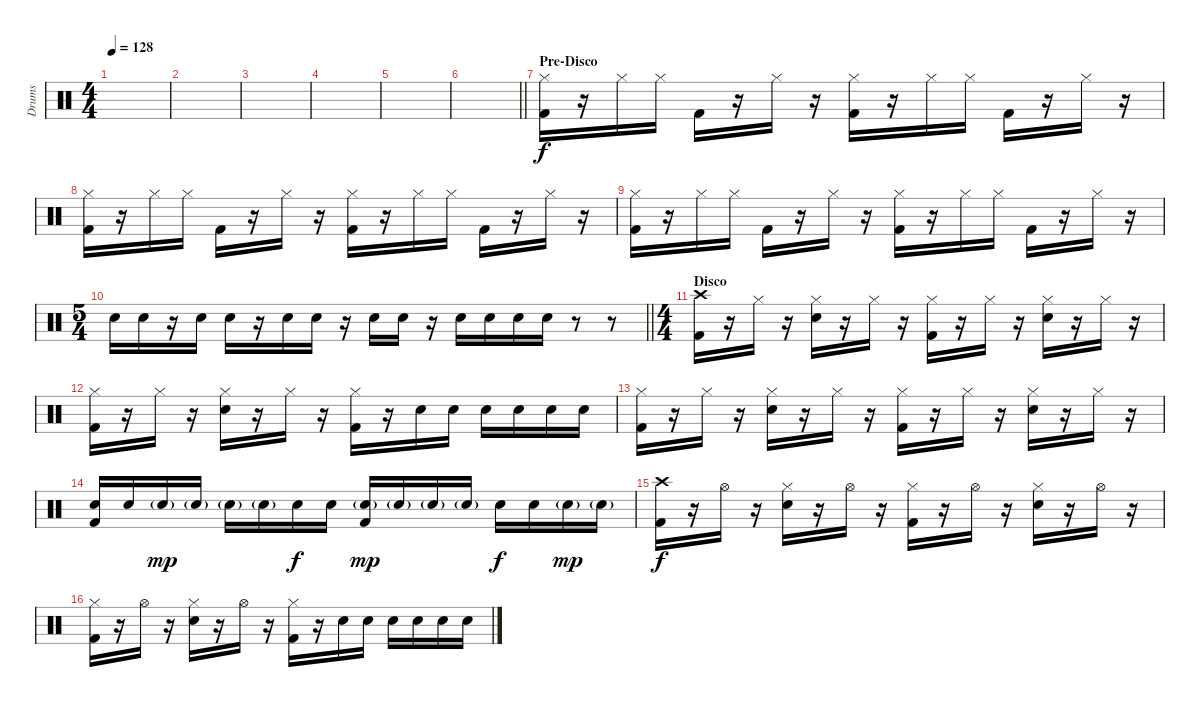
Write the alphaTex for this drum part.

\track ("Drums" "Drums") {instrument percussion}
\staff {score}
\articulation defaults
\ts (4 4)
\tempo 128
\clef neutral
\ks c
|
|
|
|
|
\barLineRight lightlight
|
\section ("" "Pre-Disco")
("Hi-Hat (closed)" "Kick (hit) 2").16 r.16 "Hi-Hat (closed)".16 "Hi-Hat (closed)".16 "Kick (hit) 2".16 r.16 "Hi-Hat (closed)".16 r.16 ("Hi-Hat (closed)" "Kick (hit) 2").16 r.16 "Hi-Hat (closed)".16 "Hi-Hat (closed)".16 "Kick (hit) 2".16 r.16 "Hi-Hat (closed)".16 r.16 |
("Hi-Hat (closed)" "Kick (hit) 2").16 r.16 "Hi-Hat (closed)".16 "Hi-Hat (closed)".16 "Kick (hit) 2".16 r.16 "Hi-Hat (closed)".16 r.16 ("Hi-Hat (closed)" "Kick (hit) 2").16 r.16 "Hi-Hat (closed)".16 "Hi-Hat (closed)".16 "Kick (hit) 2".16 r.16 "Hi-Hat (closed)".16 r.16 |
("Hi-Hat (closed)" "Kick (hit) 2").16 r.16 "Hi-Hat (closed)".16 "Hi-Hat (closed)".16 "Kick (hit) 2".16 r.16 "Hi-Hat (closed)".16 r.16 ("Hi-Hat (closed)" "Kick (hit) 2").16 r.16 "Hi-Hat (closed)".16 "Hi-Hat (closed)".16 "Kick (hit) 2".16 r.16 "Hi-Hat (closed)".16 r.16 |
\ts (5 4)
\barLineRight lightlight "Electric Snare (hit)".16 "Electric Snare (hit)".16
r.16 "Electric Snare (hit)".16 "Electric Snare (hit)".16 r.16 "Electric Snare (hit)".16 "Electric Snare (hit)".16 r.16 "Electric Snare (hit)".16 "Electric Snare (hit)".16 r.16 "Electric Snare (hit)".16 "Electric Snare (hit)".16 "Electric Snare (hit)".16 "Electric Snare (hit)".16 r.8 r.8 |
\ts (4 4)
\section ("" "Disco")
("Crash high (hit)" "Kick (hit) 2").16 r.16 "Hi-Hat (closed)".16 r.16 ("Hi-Hat (closed)" "Electric Snare (hit)").16 r.16 "Hi-Hat (closed)".16 r.16 ("Hi-Hat (closed)" "Kick (hit) 2").16 r.16 "Hi-Hat (closed)".16 r.16 ("Hi-Hat (closed)" "Electric Snare (hit)").16 r.16 "Hi-Hat (closed)".16 r.16 |
("Hi-Hat (closed)" "Kick (hit) 2").16 r.16 "Hi-Hat (closed)".16 r.16 ("Hi-Hat (closed)" "Electric Snare (hit)").16 r.16 "Hi-Hat (closed)".16 r.16 ("Hi-Hat (closed)" "Kick (hit) 2").16 r.16 "Electric Snare (hit)".16 "Electric Snare (hit)".16 "Electric Snare (hit)".16 "Electric Snare (hit)".16 "Electric Snare (hit)".16 "Electric Snare (hit)".16 |
("Hi-Hat (closed)" "Kick (hit) 2").16 r.16 "Hi-Hat (closed)".16 r.16 ("Hi-Hat (closed)" "Electric Snare (hit)").16 r.16 "Hi-Hat (closed)".16 r.16 ("Hi-Hat (closed)" "Kick (hit) 2").16 r.16 "Hi-Hat (closed)".16 r.16 ("Hi-Hat (closed)" "Electric Snare (hit)").16 r.16 "Hi-Hat (closed)".16 r.16 |
("Electric Snare (hit)" "Kick (hit) 2").16 "Electric Snare (hit)".16 "Electric Snare (hit)"{g}.16{dy mp} "Electric Snare (hit)"{g}.16 "Electric Snare (hit)"{g}.16 "Electric Snare (hit)"{g}.16 "Electric Snare (hit)".16{dy f} "Electric Snare (hit)".16 ("Electric Snare (hit)"{g} "Kick (hit) 2").16{dy mp} "Electric Snare (hit)"{g}.16 "Electric Snare (hit)"{g}.16 "Electric Snare (hit)"{g}.16 "Electric Snare (hit)".16{dy f} "Electric Snare (hit)".16 "Electric Snare (hit)"{g}.16{dy mp} "Electric Snare (hit)"{g}.16 |
("Crash high (hit)" "Kick (hit) 2").16{dy f} r.16 "Hi-Hat (open)".16 r.16 ("Hi-Hat (closed)" "Electric Snare (hit)").16 r.16 "Hi-Hat (open)".16 r.16 ("Hi-Hat (closed)" "Kick (hit) 2").16 r.16 "Hi-Hat (open)".16 r.16 ("Hi-Hat (closed)" "Electric Snare (hit)").16 r.16 "Hi-Hat (open)".16 r.16 |
("Hi-Hat (closed)" "Kick (hit) 2").16 r.16 "Hi-Hat (open)".16 r.16 ("Hi-Hat (closed)" "Electric Snare (hit)").16 r.16 "Hi-Hat (open)".16 r.16 ("Hi-Hat (closed)" "Kick (hit) 2").16 r.16 "Electric Snare (hit)".16 "Electric Snare (hit)".16 "Electric Snare (hit)".16 "Electric Snare (hit)".16 "Electric Snare (hit)".16 "Electric Snare (hit)".16
